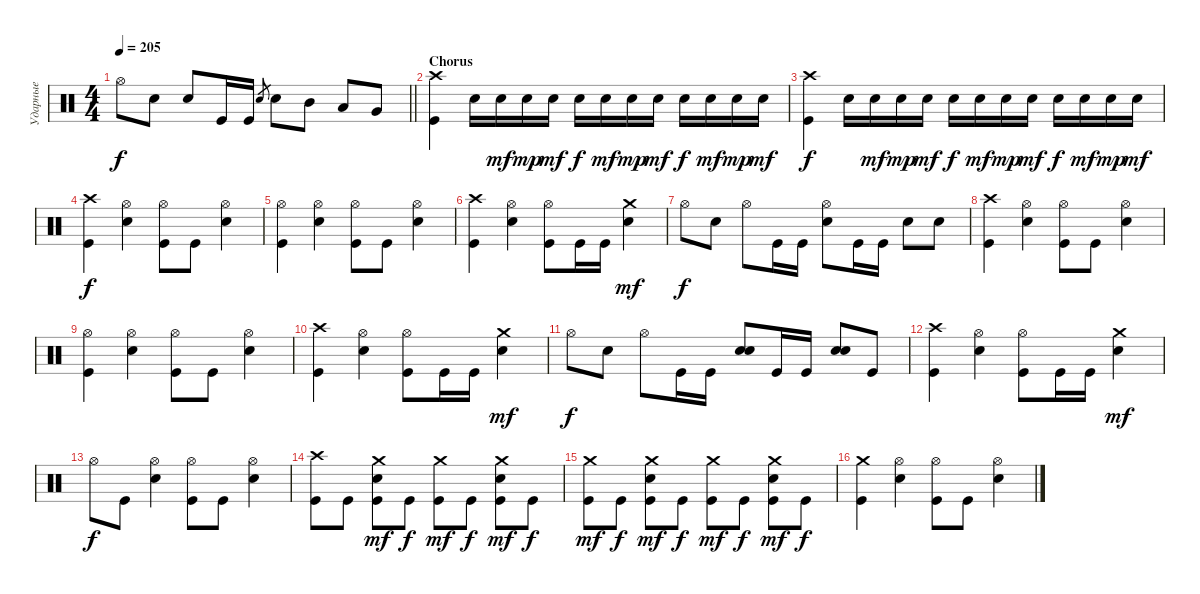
\track ("Ударные" "Ударные") {instrument percussion}
\staff {score}
\articulation defaults
\ts (4 4)
\tempo 205
\clef neutral
\barLineRight lightlight
\ks aminor "Hi-Hat (open)".8{dy f} "Snare (hit) 2".8 "Snare (hit) 2".8 "Kick (hit)".16 "Kick (hit)".16 "Snare (hit) 2".8{gr} "Snare (hit) 2".8 "Mid Tom (hit)".8 "Low Tom (hit)".8 "Very Low Tom (hit)".8
|
\section ("" "Chorus")
("Kick (hit)" "Crash high (hit)").4 "Snare (hit) 2".16 "Snare (hit) 2".16{dy mf} "Snare (hit) 2".16{dy mp} "Snare (hit) 2".16{dy mf} "Snare (hit) 2".16{dy f} "Snare (hit) 2".16{dy mf} "Snare (hit) 2".16{dy mp} "Snare (hit) 2".16{dy mf} "Snare (hit) 2".16{dy f} "Snare (hit) 2".16{dy mf} "Snare (hit) 2".16{dy mp} "Snare (hit) 2".16{dy mf} |
("Kick (hit)" "Crash high (hit)").4{dy f} "Snare (hit) 2".16 "Snare (hit) 2".16{dy mf} "Snare (hit) 2".16{dy mp} "Snare (hit) 2".16{dy mf} "Snare (hit) 2".16{dy f} "Snare (hit) 2".16{dy mf} "Snare (hit) 2".16{dy mp} "Snare (hit) 2".16{dy mf} "Snare (hit) 2".16{dy f} "Snare (hit) 2".16{dy mf} "Snare (hit) 2".16{dy mp} "Snare (hit) 2".16{dy mf} |
("Kick (hit)" "Crash high (hit)").4{dy f} ("Snare (hit) 2" "Hi-Hat (open)").4 ("Kick (hit)" "Hi-Hat (open)").8 "Kick (hit)".8 ("Snare (hit) 2" "Hi-Hat (open)").4 |
("Kick (hit)" "Hi-Hat (open)").4 ("Snare (hit) 2" "Hi-Hat (open)").4 ("Kick (hit)" "Hi-Hat (open)").8 "Kick (hit)".8 ("Snare (hit) 2" "Hi-Hat (open)").4 |
("Kick (hit)" "Crash high (hit)").4 ("Snare (hit) 2" "Hi-Hat (open)").4 ("Kick (hit)" "Hi-Hat (open)").8 "Kick (hit)".16 "Kick (hit)".16 ("Snare (hit) 2" "Crash medium (hit)").4{dy mf} |
"Hi-Hat (open)".8{dy f} "Snare (hit) 2".8 "Hi-Hat (open)".8 "Kick (hit)".16 "Kick (hit)".16 ("Snare (hit) 2" "Hi-Hat (open)").8 "Kick (hit)".16 "Kick (hit)".16 "Snare (hit) 2".8 "Snare (hit) 2".8 |
("Kick (hit)" "Crash high (hit)").4 ("Snare (hit) 2" "Hi-Hat (open)").4 ("Kick (hit)" "Hi-Hat (open)").8 "Kick (hit)".8 ("Snare (hit) 2" "Hi-Hat (open)").4 |
("Kick (hit)" "Hi-Hat (open)").4 ("Snare (hit) 2" "Hi-Hat (open)").4 ("Kick (hit)" "Hi-Hat (open)").8 "Kick (hit)".8 ("Snare (hit) 2" "Hi-Hat (open)").4 |
("Kick (hit)" "Crash high (hit)").4 ("Snare (hit) 2" "Hi-Hat (open)").4 ("Kick (hit)" "Hi-Hat (open)").8 "Kick (hit)".16 "Kick (hit)".16 ("Snare (hit) 2" "Crash medium (hit)").4{dy mf} |
"Hi-Hat (open)".8{dy f} "Snare (hit) 2".8 "Hi-Hat (open)".8 "Kick (hit)".16 "Kick (hit)".16 ("Snare (hit) 2" "Snare (hit) 2").8{bd 240} "Kick (hit)".16 "Kick (hit)".16 ("Snare (hit) 2" "Snare (hit) 2").8{bd 240} "Kick (hit)".8 |
("Kick (hit)" "Crash high (hit)").4 ("Snare (hit) 2" "Hi-Hat (open)").4 ("Kick (hit)" "Hi-Hat (open)").8 "Kick (hit)".16 "Kick (hit)".16 ("Snare (hit) 2" "Crash medium (hit)").4{dy mf} |
"Hi-Hat (open)".8{dy f} "Kick (hit)".8 ("Snare (hit) 2" "Hi-Hat (open)").4 ("Kick (hit)" "Hi-Hat (open)").8 "Kick (hit)".8 ("Snare (hit) 2" "Hi-Hat (open)").4 |
("Kick (hit)" "Crash high (hit)").8 "Kick (hit)".8 ("Kick (hit)" "Snare (hit) 2" "Crash medium (hit)").8{dy mf} "Kick (hit)".8{dy f} ("Kick (hit)" "Crash medium (hit)").8{dy mf} "Kick (hit)".8{dy f} ("Kick (hit)" "Snare (hit) 2" "Crash medium (hit)").8{dy mf} "Kick (hit)".8{dy f} |
("Kick (hit)" "Crash medium (hit)").8{dy mf} "Kick (hit)".8{dy f} ("Kick (hit)" "Snare (hit) 2" "Crash medium (hit)").8{dy mf} "Kick (hit)".8{dy f} ("Kick (hit)" "Crash medium (hit)").8{dy mf} "Kick (hit)".8{dy f} ("Kick (hit)" "Snare (hit) 2" "Crash medium (hit)").8{dy mf} "Kick (hit)".8{dy f} |
("Kick (hit)" "Crash medium (hit)").4 ("Snare (hit) 2" "Hi-Hat (open)").4 ("Kick (hit)" "Hi-Hat (open)").8 "Kick (hit)".8 ("Snare (hit) 2" "Hi-Hat (open)").4
